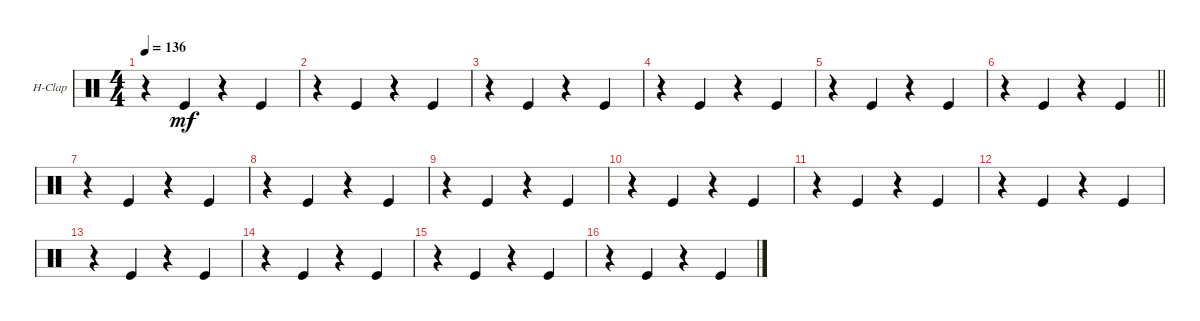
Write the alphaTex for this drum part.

\defaultSystemsLayout 4
\bracketExtendMode groupsimilarinstruments
\firstSystemTrackNameOrientation horizontal
\otherSystemsTrackNameOrientation horizontal
\track ("Hand Clap" "H-Clap") {instrument percussion}
\staff {score}
\articulation defaults
\ts (4 4)
\tempo 136
\clef neutral
\scale
0.333333
\ks c
r.4{dy mf} "Kick (hit)".4 r.4 "Kick (hit)".4 |
\scale
0.333333 r.4 "Kick (hit)".4 r.4 "Kick (hit)".4 |
\scale
0.333333 r.4 "Kick (hit)".4 r.4 "Kick (hit)".4 |
\scale
0.333333 r.4 "Kick (hit)".4 r.4 "Kick (hit)".4 |
\scale
0.333333 r.4 "Kick (hit)".4 r.4 "Kick (hit)".4 |
\scale
0.333333
\barLineRight lightlight
r.4 "Kick (hit)".4 r.4 "Kick (hit)".4 |
\scale
0.333333 r.4 "Kick (hit)".4 r.4 "Kick (hit)".4 |
\scale
0.333333 r.4 "Kick (hit)".4 r.4 "Kick (hit)".4 |
\scale
0.333333 r.4 "Kick (hit)".4 r.4 "Kick (hit)".4 |
\scale
0.333333 r.4 "Kick (hit)".4 r.4 "Kick (hit)".4 |
\scale
0.333333 r.4 "Kick (hit)".4 r.4 "Kick (hit)".4 |
\scale
0.333333 r.4 "Kick (hit)".4 r.4 "Kick (hit)".4 |
\scale
0.333333 r.4 "Kick (hit)".4 r.4 "Kick (hit)".4 |
\scale
0.333333 r.4 "Kick (hit)".4 r.4 "Kick (hit)".4 |
\scale
0.333333 r.4 "Kick (hit)".4 r.4 "Kick (hit)".4 |
\scale
0.333333 r.4 "Kick (hit)".4 r.4 "Kick (hit)".4
